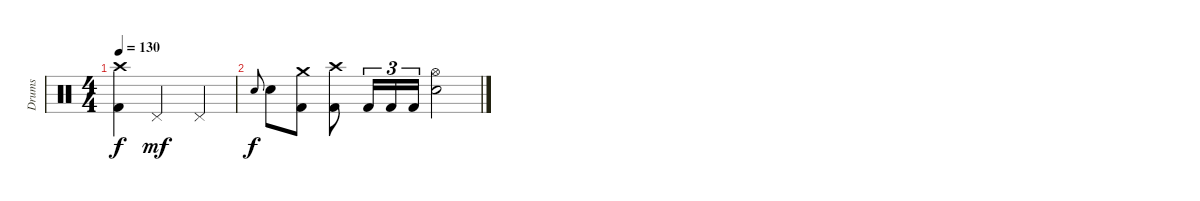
\track ("Drums" "Drums") {instrument percussion}
\staff {score}
\articulation defaults
\ts (4 4)
\section ("" "")
\tempo 130
\clef neutral
\ks c
("Crash high (hit)" "Kick (hit) 2").4{dy f} "Pedal Hi-Hat (hit)".2{dy mf} "Pedal Hi-Hat (hit)".4 |
"Electric Snare (hit)".8{gr onbeat dy f} "Electric Snare (hit)".8 ("Crash medium (hit)" "Kick (hit) 2").8 ("Crash high (hit)" "Kick (hit) 2").8 "Kick (hit) 2".16{tu (3 2)} "Kick (hit) 2".16{tu (3 2)} "Kick (hit) 2".16{tu (3 2)} ("Hi-Hat (open)" "Electric Snare (hit)").2
